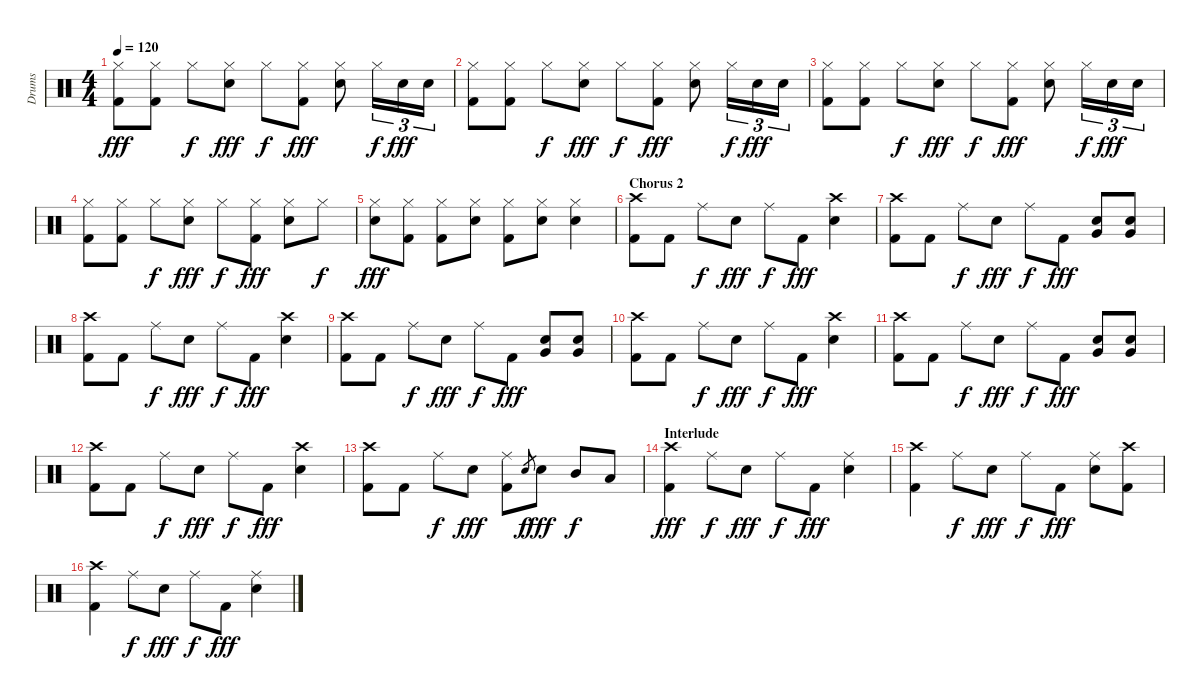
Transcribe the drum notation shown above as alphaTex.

\track ("Drums" "Drums") {instrument percussion}
\staff {score}
\articulation defaults
\ts (4 4)
\tempo 120
\clef neutral
\ks c
("Hi-Hat (closed)" "Kick (hit) 2").8{dy fff} ("Hi-Hat (closed)" "Kick (hit) 2").8 "Hi-Hat (closed)".8{dy f} ("Hi-Hat (closed)" "Snare (hit) 2").8{dy fff} "Hi-Hat (closed)".8{dy f} ("Hi-Hat (closed)" "Kick (hit) 2").8{dy fff} ("Hi-Hat (closed)" "Snare (hit) 2").8 "Hi-Hat (closed)".16{tu (3 2) dy f} "Snare (hit) 2".16{tu (3 2) dy fff} "Snare (hit) 2".16{tu (3 2)} |
("Hi-Hat (closed)" "Kick (hit) 2").8 ("Hi-Hat (closed)" "Kick (hit) 2").8 "Hi-Hat (closed)".8{dy f} ("Hi-Hat (closed)" "Snare (hit) 2").8{dy fff} "Hi-Hat (closed)".8{dy f} ("Hi-Hat (closed)" "Kick (hit) 2").8{dy fff} ("Hi-Hat (closed)" "Snare (hit) 2").8 "Hi-Hat (closed)".16{tu (3 2) dy f} "Snare (hit) 2".16{tu (3 2) dy fff} "Snare (hit) 2".16{tu (3 2)} |
("Hi-Hat (closed)" "Kick (hit) 2").8 ("Hi-Hat (closed)" "Kick (hit) 2").8 "Hi-Hat (closed)".8{dy f} ("Hi-Hat (closed)" "Snare (hit) 2").8{dy fff} "Hi-Hat (closed)".8{dy f} ("Hi-Hat (closed)" "Kick (hit) 2").8{dy fff} ("Hi-Hat (closed)" "Snare (hit) 2").8 "Hi-Hat (closed)".16{tu (3 2) dy f} "Snare (hit) 2".16{tu (3 2) dy fff} "Snare (hit) 2".16{tu (3 2)} |
("Hi-Hat (closed)" "Kick (hit) 2").8 ("Hi-Hat (closed)" "Kick (hit) 2").8 "Hi-Hat (closed)".8{dy f} ("Hi-Hat (closed)" "Snare (hit) 2").8{dy fff} "Hi-Hat (closed)".8{dy f} ("Hi-Hat (closed)" "Kick (hit) 2").8{dy fff} ("Hi-Hat (closed)" "Snare (hit) 2").8 "Hi-Hat (closed)".8{dy f} |
("Hi-Hat (closed)" "Snare (hit) 2").8{dy fff} ("Hi-Hat (closed)" "Kick (hit) 2").8 ("Hi-Hat (closed)" "Kick (hit) 2").8 ("Hi-Hat (closed)" "Snare (hit) 2").8 ("Hi-Hat (closed)" "Kick (hit) 2").8 ("Hi-Hat (closed)" "Snare (hit) 2").8 ("Hi-Hat (closed)" "Snare (hit) 2").4 |
\section ("" "Chorus 2")
("Crash high (hit)" "Kick (hit) 2").8 "Kick (hit) 2".8 "Ride (middle)".8{dy f} "Snare (hit) 2".8{dy fff} "Ride (middle)".8{dy f} "Kick (hit) 2".8{dy fff} ("Crash high (hit)" "Snare (hit) 2").4 |
("Crash high (hit)" "Kick (hit) 2").8 "Kick (hit) 2".8 "Ride (middle)".8{dy f} "Snare (hit) 2".8{dy fff} "Ride (middle)".8{dy f} "Kick (hit) 2".8{dy fff} ("Snare (hit) 2" "Very Low Tom (hit)").8 ("Snare (hit) 2" "Very Low Tom (hit)").8 |
("Crash high (hit)" "Kick (hit) 2").8 "Kick (hit) 2".8 "Ride (middle)".8{dy f} "Snare (hit) 2".8{dy fff} "Ride (middle)".8{dy f} "Kick (hit) 2".8{dy fff} ("Crash high (hit)" "Snare (hit) 2").4 |
("Crash high (hit)" "Kick (hit) 2").8 "Kick (hit) 2".8 "Ride (middle)".8{dy f} "Snare (hit) 2".8{dy fff} "Ride (middle)".8{dy f} "Kick (hit) 2".8{dy fff} ("Snare (hit) 2" "Very Low Tom (hit)").8 ("Snare (hit) 2" "Very Low Tom (hit)").8 |
("Crash high (hit)" "Kick (hit) 2").8 "Kick (hit) 2".8 "Ride (middle)".8{dy f} "Snare (hit) 2".8{dy fff} "Ride (middle)".8{dy f} "Kick (hit) 2".8{dy fff} ("Crash high (hit)" "Snare (hit) 2").4 |
("Crash high (hit)" "Kick (hit) 2").8 "Kick (hit) 2".8 "Ride (middle)".8{dy f} "Snare (hit) 2".8{dy fff} "Ride (middle)".8{dy f} "Kick (hit) 2".8{dy fff} ("Snare (hit) 2" "Very Low Tom (hit)").8 ("Snare (hit) 2" "Very Low Tom (hit)").8 |
("Crash high (hit)" "Kick (hit) 2").8 "Kick (hit) 2".8 "Ride (middle)".8{dy f} "Snare (hit) 2".8{dy fff} "Ride (middle)".8{dy f} "Kick (hit) 2".8{dy fff} ("Crash high (hit)" "Snare (hit) 2").4 |
("Crash high (hit)" "Kick (hit) 2").8 "Kick (hit) 2".8 "Ride (middle)".8{dy f} "Snare (hit) 2".8{dy fff} ("Ride (middle)" "Kick (hit) 2").8 "Snare (hit) 2".8{gr dy f} "Snare (hit) 2".8{dy fff} "Mid Tom (hit)".8{dy f} "Low Tom (hit)".8 |
\section ("" "Interlude")
("Crash high (hit)" "Kick (hit) 2").4{dy fff} "Ride (middle)".8{dy f} "Snare (hit) 2".8{dy fff} "Ride (middle)".8{dy f} "Kick (hit) 2".8{dy fff} ("Ride (middle)" "Snare (hit) 2").4 |
("Crash high (hit)" "Kick (hit) 2").4 "Ride (middle)".8{dy f} "Snare (hit) 2".8{dy fff} "Ride (middle)".8{dy f} "Kick (hit) 2".8{dy fff} ("Ride (middle)" "Snare (hit) 2").8 ("Crash high (hit)" "Kick (hit) 2").8 |
("Crash high (hit)" "Kick (hit) 2").4 "Ride (middle)".8{dy f} "Snare (hit) 2".8{dy fff} "Ride (middle)".8{dy f} "Kick (hit) 2".8{dy fff} ("Ride (middle)" "Snare (hit) 2").4
